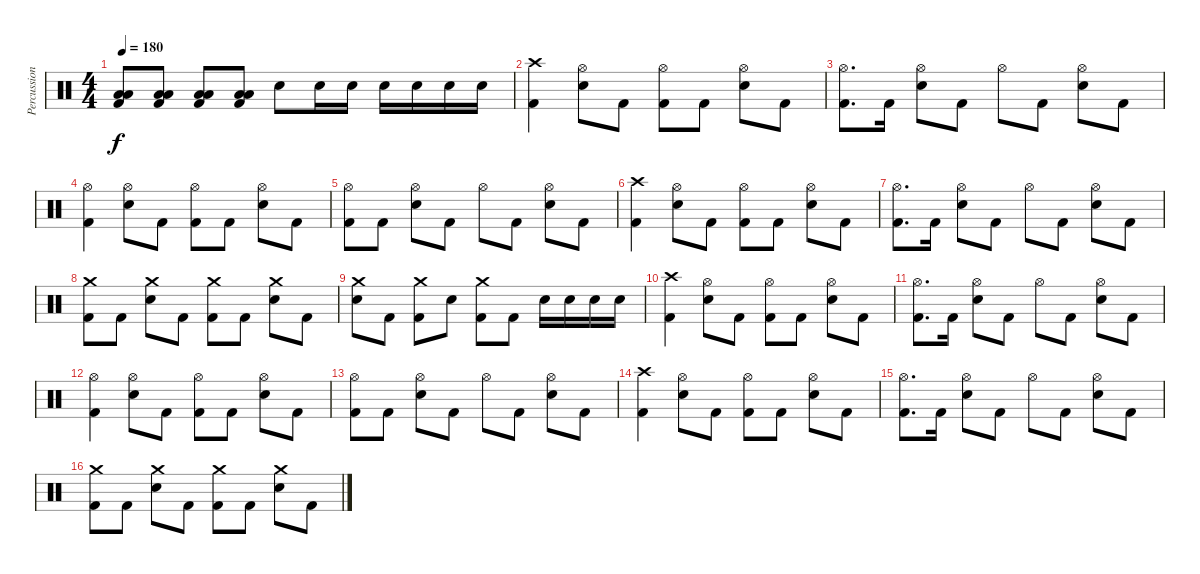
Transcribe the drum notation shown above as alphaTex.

\track ("Percussion" "Percussion") {instrument percussion}
\staff {score}
\articulation defaults
\ts (4 4)
\tempo 180
\clef neutral
\ks c
("Low Tom (hit)" "Low Floor Tom (hit)" "Kick (hit) 2").8{dy f} ("Low Tom (hit)" "Low Floor Tom (hit)" "Kick (hit) 2").8 ("Low Tom (hit)" "Low Floor Tom (hit)" "Kick (hit) 2").8 ("Low Tom (hit)" "Low Floor Tom (hit)" "Kick (hit) 2").8 "Electric Snare (hit)".8 "Electric Snare (hit)".16 "Electric Snare (hit)".16 "Electric Snare (hit)".16 "Electric Snare (hit)".16 "Electric Snare (hit)".16 "Electric Snare (hit)".16 |
("Crash high (hit)" "Kick (hit) 2").4 ("Hi-Hat (open)" "Electric Snare (hit)").8 "Kick (hit) 2".8 ("Hi-Hat (open)" "Kick (hit) 2").8 "Kick (hit) 2".8 ("Hi-Hat (open)" "Electric Snare (hit)").8 "Kick (hit) 2".8 |
("Hi-Hat (open)" "Kick (hit) 2").8{d} "Kick (hit) 2".16 ("Hi-Hat (open)" "Electric Snare (hit)").8 "Kick (hit) 2".8 "Hi-Hat (open)".8 "Kick (hit) 2".8 ("Hi-Hat (open)" "Electric Snare (hit)").8 "Kick (hit) 2".8 |
("Hi-Hat (open)" "Kick (hit) 2").4 ("Hi-Hat (open)" "Electric Snare (hit)").8 "Kick (hit) 2".8 ("Hi-Hat (open)" "Kick (hit) 2").8 "Kick (hit) 2".8 ("Hi-Hat (open)" "Electric Snare (hit)").8 "Kick (hit) 2".8 |
("Hi-Hat (open)" "Kick (hit) 2").8 "Kick (hit) 2".8 ("Hi-Hat (open)" "Electric Snare (hit)").8 "Kick (hit) 2".8 "Hi-Hat (open)".8 "Kick (hit) 2".8 ("Hi-Hat (open)" "Electric Snare (hit)").8 "Kick (hit) 2".8 |
("Crash high (hit)" "Kick (hit) 2").4 ("Hi-Hat (open)" "Electric Snare (hit)").8 "Kick (hit) 2".8 ("Hi-Hat (open)" "Kick (hit) 2").8 "Kick (hit) 2".8 ("Hi-Hat (open)" "Electric Snare (hit)").8 "Kick (hit) 2".8 |
("Hi-Hat (open)" "Kick (hit) 2").8{d} "Kick (hit) 2".16 ("Hi-Hat (open)" "Electric Snare (hit)").8 "Kick (hit) 2".8 "Hi-Hat (open)".8 "Kick (hit) 2".8 ("Hi-Hat (open)" "Electric Snare (hit)").8 "Kick (hit) 2".8 |
("Crash medium (hit)" "Kick (hit) 2").8 "Kick (hit) 2".8 ("Crash medium (hit)" "Electric Snare (hit)").8 "Kick (hit) 2".8 ("Crash medium (hit)" "Kick (hit) 2").8 "Kick (hit) 2".8 ("Crash medium (hit)" "Electric Snare (hit)").8 "Kick (hit) 2".8 |
("Crash medium (hit)" "Electric Snare (hit)").8 "Kick (hit) 2".8 ("Crash medium (hit)" "Kick (hit) 2").8 "Electric Snare (hit)".8 ("Crash medium (hit)" "Kick (hit) 2").8 "Kick (hit) 2".8 "Electric Snare (hit)".16 "Electric Snare (hit)".16 "Electric Snare (hit)".16 "Electric Snare (hit)".16 |
("Crash high (hit)" "Kick (hit) 2").4 ("Hi-Hat (open)" "Electric Snare (hit)").8 "Kick (hit) 2".8 ("Hi-Hat (open)" "Kick (hit) 2").8 "Kick (hit) 2".8 ("Hi-Hat (open)" "Electric Snare (hit)").8 "Kick (hit) 2".8 |
("Hi-Hat (open)" "Kick (hit) 2").8{d} "Kick (hit) 2".16 ("Hi-Hat (open)" "Electric Snare (hit)").8 "Kick (hit) 2".8 "Hi-Hat (open)".8 "Kick (hit) 2".8 ("Hi-Hat (open)" "Electric Snare (hit)").8 "Kick (hit) 2".8 |
("Hi-Hat (open)" "Kick (hit) 2").4 ("Hi-Hat (open)" "Electric Snare (hit)").8 "Kick (hit) 2".8 ("Hi-Hat (open)" "Kick (hit) 2").8 "Kick (hit) 2".8 ("Hi-Hat (open)" "Electric Snare (hit)").8 "Kick (hit) 2".8 |
("Hi-Hat (open)" "Kick (hit) 2").8 "Kick (hit) 2".8 ("Hi-Hat (open)" "Electric Snare (hit)").8 "Kick (hit) 2".8 "Hi-Hat (open)".8 "Kick (hit) 2".8 ("Hi-Hat (open)" "Electric Snare (hit)").8 "Kick (hit) 2".8 |
("Crash high (hit)" "Kick (hit) 2").4 ("Hi-Hat (open)" "Electric Snare (hit)").8 "Kick (hit) 2".8 ("Hi-Hat (open)" "Kick (hit) 2").8 "Kick (hit) 2".8 ("Hi-Hat (open)" "Electric Snare (hit)").8 "Kick (hit) 2".8 |
("Hi-Hat (open)" "Kick (hit) 2").8{d} "Kick (hit) 2".16 ("Hi-Hat (open)" "Electric Snare (hit)").8 "Kick (hit) 2".8 "Hi-Hat (open)".8 "Kick (hit) 2".8 ("Hi-Hat (open)" "Electric Snare (hit)").8 "Kick (hit) 2".8 |
("Crash medium (hit)" "Kick (hit) 2").8 "Kick (hit) 2".8 ("Crash medium (hit)" "Electric Snare (hit)").8 "Kick (hit) 2".8 ("Crash medium (hit)" "Kick (hit) 2").8 "Kick (hit) 2".8 ("Crash medium (hit)" "Electric Snare (hit)").8 "Kick (hit) 2".8
